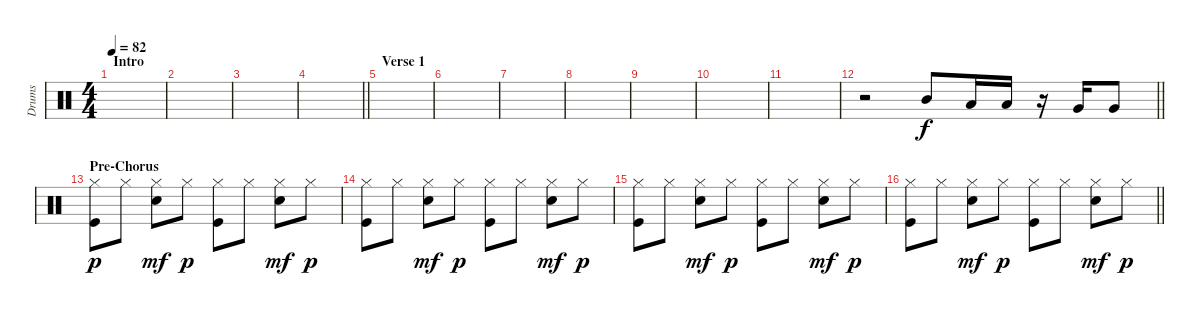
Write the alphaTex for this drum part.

\track ("Drums" "Drums") {instrument percussion}
\staff {score}
\articulation defaults
\ts (4 4)
\section ("" "Intro")
\tempo 82
\clef neutral
\ks c
|
|
|
\barLineRight lightlight
|
\section ("" "Verse 1")
|
|
|
|
|
|
|
\barLineRight lightlight
r.2 "Mid Tom (hit)".8 "Low Tom (hit)".16 "Low Tom (hit)".16 r.16 "Very Low Tom (hit)".16 "Very Low Tom (hit)".8 |
\section ("" "Pre-Chorus")
("Hi-Hat (closed)" "Kick (hit)").8{dy p} "Hi-Hat (closed)".8 ("Hi-Hat (closed)" "Snare (hit) 2").8{dy mf} "Hi-Hat (closed)".8{dy p} ("Hi-Hat (closed)" "Kick (hit)").8 "Hi-Hat (closed)".8 ("Hi-Hat (closed)" "Snare (hit) 2").8{dy mf} "Hi-Hat (closed)".8{dy p} |
("Hi-Hat (closed)" "Kick (hit)").8 "Hi-Hat (closed)".8 ("Hi-Hat (closed)" "Snare (hit) 2").8{dy mf} "Hi-Hat (closed)".8{dy p} ("Hi-Hat (closed)" "Kick (hit)").8 "Hi-Hat (closed)".8 ("Hi-Hat (closed)" "Snare (hit) 2").8{dy mf} "Hi-Hat (closed)".8{dy p} |
("Hi-Hat (closed)" "Kick (hit)").8 "Hi-Hat (closed)".8 ("Hi-Hat (closed)" "Snare (hit) 2").8{dy mf} "Hi-Hat (closed)".8{dy p} ("Hi-Hat (closed)" "Kick (hit)").8 "Hi-Hat (closed)".8 ("Hi-Hat (closed)" "Snare (hit) 2").8{dy mf} "Hi-Hat (closed)".8{dy p} |
\barLineRight lightlight
("Hi-Hat (closed)" "Kick (hit)").8 "Hi-Hat (closed)".8 ("Hi-Hat (closed)" "Snare (hit) 2").8{dy mf} "Hi-Hat (closed)".8{dy p} ("Hi-Hat (closed)" "Kick (hit)").8 "Hi-Hat (closed)".8 ("Hi-Hat (closed)" "Snare (hit) 2").8{dy mf} "Hi-Hat (closed)".8{dy p}
